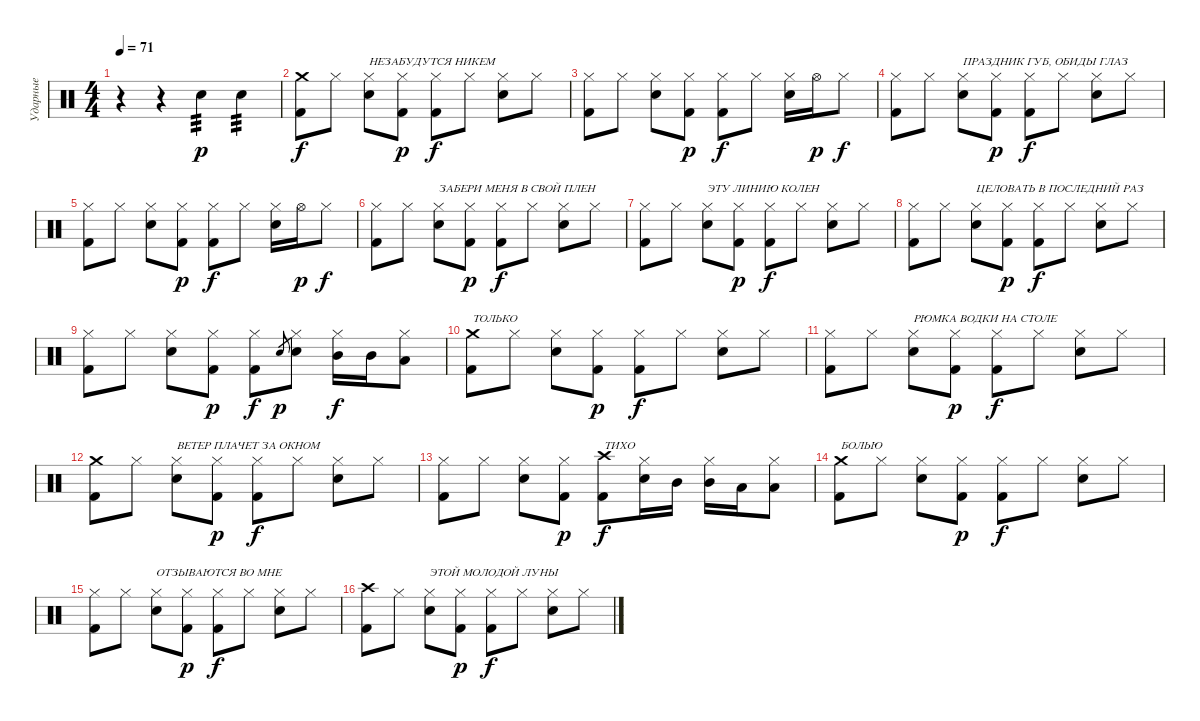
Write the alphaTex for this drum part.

\track ("Ударные" "Ударные") {instrument percussion}
\staff {score}
\articulation defaults
\ts (4 4)
\tempo 71
\clef neutral
\ks c
r.4{dy f} r.4 "Snare (hit) 2".4{tp 3 dy p} "Snare (hit) 2".4{tp 3} |
("Crash medium (hit)" "Kick (hit) 2").8{dy f} "Hi-Hat (closed)".8 ("Hi-Hat (closed)" "Electric Snare (hit)").8{txt "НЕЗАБУДУТСЯ НИКЕМ"} ("Hi-Hat (closed)" "Kick (hit) 2").8{dy p} ("Hi-Hat (closed)" "Kick (hit) 2").8{dy f} "Hi-Hat (closed)".8 ("Hi-Hat (closed)" "Electric Snare (hit)").8 "Hi-Hat (closed)".8 |
("Hi-Hat (closed)" "Kick (hit) 2").8 "Hi-Hat (closed)".8 ("Hi-Hat (closed)" "Electric Snare (hit)").8 ("Hi-Hat (closed)" "Kick (hit) 2").8{dy p} ("Hi-Hat (closed)" "Kick (hit) 2").8{dy f} "Hi-Hat (closed)".8 ("Hi-Hat (closed)" "Electric Snare (hit)").16 "Hi-Hat (open)".16{dy p} "Hi-Hat (closed)".8{dy f} |
("Hi-Hat (closed)" "Kick (hit) 2").8 "Hi-Hat (closed)".8 ("Hi-Hat (closed)" "Electric Snare (hit)").8{txt "ПРАЗДНИК ГУБ, ОБИДЫ ГЛАЗ"} ("Hi-Hat (closed)" "Kick (hit) 2").8{dy p} ("Hi-Hat (closed)" "Kick (hit) 2").8{dy f} "Hi-Hat (closed)".8 ("Hi-Hat (closed)" "Electric Snare (hit)").8 "Hi-Hat (closed)".8 |
("Hi-Hat (closed)" "Kick (hit) 2").8 "Hi-Hat (closed)".8 ("Hi-Hat (closed)" "Electric Snare (hit)").8 ("Hi-Hat (closed)" "Kick (hit) 2").8{dy p} ("Hi-Hat (closed)" "Kick (hit) 2").8{dy f} "Hi-Hat (closed)".8 ("Hi-Hat (closed)" "Electric Snare (hit)").16 "Hi-Hat (open)".16{dy p} "Hi-Hat (closed)".8{dy f} |
("Hi-Hat (closed)" "Kick (hit) 2").8 "Hi-Hat (closed)".8 ("Hi-Hat (closed)" "Electric Snare (hit)").8{txt "ЗАБЕРИ МЕНЯ В СВОЙ ПЛЕН"} ("Hi-Hat (closed)" "Kick (hit) 2").8{dy p} ("Hi-Hat (closed)" "Kick (hit) 2").8{dy f} "Hi-Hat (closed)".8 ("Hi-Hat (closed)" "Electric Snare (hit)").8 "Hi-Hat (closed)".8 |
("Hi-Hat (closed)" "Kick (hit) 2").8 "Hi-Hat (closed)".8 ("Hi-Hat (closed)" "Electric Snare (hit)").8{txt "ЭТУ ЛИНИЮ КОЛЕН"} ("Hi-Hat (closed)" "Kick (hit) 2").8{dy p} ("Hi-Hat (closed)" "Kick (hit) 2").8{dy f} "Hi-Hat (closed)".8 ("Hi-Hat (closed)" "Electric Snare (hit)").8 "Hi-Hat (closed)".8 |
("Hi-Hat (closed)" "Kick (hit) 2").8 "Hi-Hat (closed)".8 ("Hi-Hat (closed)" "Electric Snare (hit)").8{txt "ЦЕЛОВАТЬ В ПОСЛЕДНИЙ РАЗ"} ("Hi-Hat (closed)" "Kick (hit) 2").8{dy p} ("Hi-Hat (closed)" "Kick (hit) 2").8{dy f} "Hi-Hat (closed)".8 ("Hi-Hat (closed)" "Electric Snare (hit)").8 "Hi-Hat (closed)".8 |
("Hi-Hat (closed)" "Kick (hit) 2").8 "Hi-Hat (closed)".8 ("Hi-Hat (closed)" "Electric Snare (hit)").8 ("Hi-Hat (closed)" "Kick (hit) 2").8{dy p} ("Hi-Hat (closed)" "Kick (hit) 2").8{dy f} "Snare (hit) 2".8{gr dy p} ("Hi-Hat (closed)" "Snare (hit) 2").8 ("Hi-Hat (closed)" "Mid Tom (hit)").16{dy f} "Mid Tom (hit)".16 ("Hi-Hat (closed)" "Low Tom (hit)").8 |
("Crash medium (hit)" "Kick (hit) 2").8{txt "ТОЛЬКО"} "Hi-Hat (closed)".8 ("Hi-Hat (closed)" "Snare (hit) 2").8 ("Hi-Hat (closed)" "Kick (hit) 2").8{dy p} ("Hi-Hat (closed)" "Kick (hit) 2").8{dy f} "Hi-Hat (closed)".8 ("Hi-Hat (closed)" "Snare (hit) 2").8 "Hi-Hat (closed)".8 |
("Hi-Hat (closed)" "Kick (hit) 2").8 "Hi-Hat (closed)".8 ("Hi-Hat (closed)" "Snare (hit) 2").8{txt "РЮМКА ВОДКИ НА СТОЛЕ"} ("Hi-Hat (closed)" "Kick (hit) 2").8{dy p} ("Hi-Hat (closed)" "Kick (hit) 2").8{dy f} "Hi-Hat (closed)".8 ("Hi-Hat (closed)" "Snare (hit) 2").8 "Hi-Hat (closed)".8 |
("Crash medium (hit)" "Kick (hit) 2").8 "Hi-Hat (closed)".8 ("Hi-Hat (closed)" "Snare (hit) 2").8{txt "ВЕТЕР ПЛАЧЕТ ЗА ОКНОМ"} ("Hi-Hat (closed)" "Kick (hit) 2").8{dy p} ("Hi-Hat (closed)" "Kick (hit) 2").8{dy f} "Hi-Hat (closed)".8 ("Hi-Hat (closed)" "Snare (hit) 2").8 "Hi-Hat (closed)".8 |
("Hi-Hat (closed)" "Kick (hit) 2").8 "Hi-Hat (closed)".8 ("Hi-Hat (closed)" "Snare (hit) 2").8 ("Hi-Hat (closed)" "Kick (hit) 2").8{dy p} ("Crash high (hit)" "Kick (hit) 2").8{txt "ТИХО" dy f} ("Hi-Hat (closed)" "Snare (hit) 2").16 "Mid Tom (hit)".16 ("Hi-Hat (closed)" "Mid Tom (hit)").16 "Low Tom (hit)".16 ("Hi-Hat (closed)" "Low Tom (hit)").8 |
("Crash medium (hit)" "Kick (hit) 2").8{txt "БОЛЬЮ"} "Hi-Hat (closed)".8 ("Hi-Hat (closed)" "Snare (hit) 2").8 ("Hi-Hat (closed)" "Kick (hit) 2").8{dy p} ("Hi-Hat (closed)" "Kick (hit) 2").8{dy f} "Hi-Hat (closed)".8 ("Hi-Hat (closed)" "Snare (hit) 2").8 "Hi-Hat (closed)".8 |
("Hi-Hat (closed)" "Kick (hit) 2").8 "Hi-Hat (closed)".8 ("Hi-Hat (closed)" "Snare (hit) 2").8{txt "ОТЗЫВАЮТСЯ ВО МНЕ"} ("Hi-Hat (closed)" "Kick (hit) 2").8{dy p} ("Hi-Hat (closed)" "Kick (hit) 2").8{dy f} "Hi-Hat (closed)".8 ("Hi-Hat (closed)" "Snare (hit) 2").8 "Hi-Hat (closed)".8 |
("Crash high (hit)" "Kick (hit) 2").8 "Hi-Hat (closed)".8 ("Hi-Hat (closed)" "Snare (hit) 2").8{txt "ЭТОЙ МОЛОДОЙ ЛУНЫ"} ("Hi-Hat (closed)" "Kick (hit) 2").8{dy p} ("Hi-Hat (closed)" "Kick (hit) 2").8{dy f} "Hi-Hat (closed)".8 ("Hi-Hat (closed)" "Snare (hit) 2").8 "Hi-Hat (closed)".8
